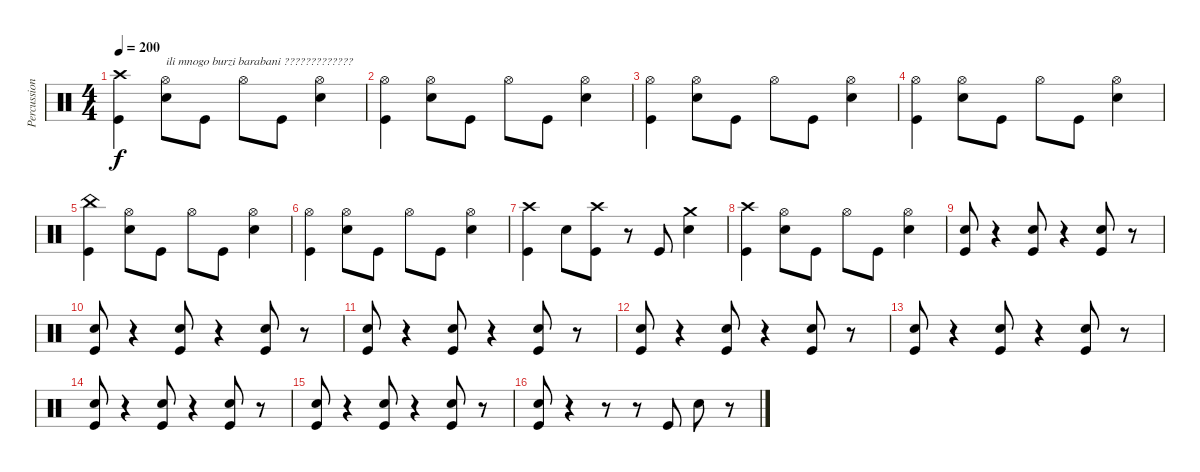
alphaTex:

\track ("Percussion" "Percussion") {instrument percussion}
\staff {score}
\articulation defaults
\ts (4 4)
\tempo 200
\clef neutral
\ks c
("Crash high (hit)" "Kick (hit)").4{dy f} ("Snare (hit) 2" "Hi-Hat (open)").8{txt "ili mnogo burzi barabani ?????????????"} "Kick (hit)".8 "Hi-Hat (open)".8 "Kick (hit)".8 ("Snare (hit) 2" "Hi-Hat (open)").4 |
("Hi-Hat (open)" "Kick (hit)").4 ("Snare (hit) 2" "Hi-Hat (open)").8 "Kick (hit)".8 "Hi-Hat (open)".8 "Kick (hit)".8 ("Snare (hit) 2" "Hi-Hat (open)").4 |
("Kick (hit)" "Hi-Hat (open)").4 ("Snare (hit) 2" "Hi-Hat (open)").8 "Kick (hit)".8 "Hi-Hat (open)".8 "Kick (hit)".8 ("Snare (hit) 2" "Hi-Hat (open)").4 |
("Kick (hit)" "Hi-Hat (open)").4 ("Snare (hit) 2" "Hi-Hat (open)").8 "Kick (hit)".8 "Hi-Hat (open)".8 "Kick (hit)".8 ("Snare (hit) 2" "Hi-Hat (open)").4 |
("China (hit)" "Kick (hit)").4 ("Snare (hit) 2" "Hi-Hat (open)").8 "Kick (hit)".8 "Hi-Hat (open)".8 "Kick (hit)".8 ("Snare (hit) 2" "Hi-Hat (open)").4 |
("Kick (hit)" "Hi-Hat (open)").4 ("Snare (hit) 2" "Hi-Hat (open)").8 "Kick (hit)".8 "Hi-Hat (open)".8 "Kick (hit)".8 ("Snare (hit) 2" "Hi-Hat (open)").4 |
("Kick (hit)" "Crash high (hit)").4 "Snare (hit) 2".8 ("Kick (hit)" "Crash high (hit)").8 r.8 "Kick (hit)".8 ("Snare (hit) 2" "Crash medium (hit)").4 |
("Kick (hit)" "Crash high (hit)").4 ("Snare (hit) 2" "Hi-Hat (open)").8 "Kick (hit)".8 "Hi-Hat (open)".8 "Kick (hit)".8 ("Snare (hit) 2" "Hi-Hat (open)").4 |
("Kick (hit)" "Snare (hit) 2").8 r.4 ("Kick (hit)" "Snare (hit) 2").8 r.4 ("Kick (hit)" "Snare (hit) 2").8 r.8 |
("Kick (hit)" "Snare (hit) 2").8 r.4 ("Kick (hit)" "Snare (hit) 2").8 r.4 ("Kick (hit)" "Snare (hit) 2").8 r.8 |
("Kick (hit)" "Snare (hit) 2").8 r.4 ("Kick (hit)" "Snare (hit) 2").8 r.4 ("Kick (hit)" "Snare (hit) 2").8 r.8 |
("Kick (hit)" "Snare (hit) 2").8 r.4 ("Kick (hit)" "Snare (hit) 2").8 r.4 ("Kick (hit)" "Snare (hit) 2").8 r.8 |
("Kick (hit)" "Snare (hit) 2").8 r.4 ("Kick (hit)" "Snare (hit) 2").8 r.4 ("Kick (hit)" "Snare (hit) 2").8 r.8 |
("Kick (hit)" "Snare (hit) 2").8 r.4 ("Kick (hit)" "Snare (hit) 2").8 r.4 ("Kick (hit)" "Snare (hit) 2").8 r.8 |
("Kick (hit)" "Snare (hit) 2").8 r.4 ("Kick (hit)" "Snare (hit) 2").8 r.4 ("Kick (hit)" "Snare (hit) 2").8 r.8 |
("Kick (hit)" "Snare (hit) 2").8 r.4 r.8 r.8 "Kick (hit)".8 "Snare (hit) 2".8 r.8
